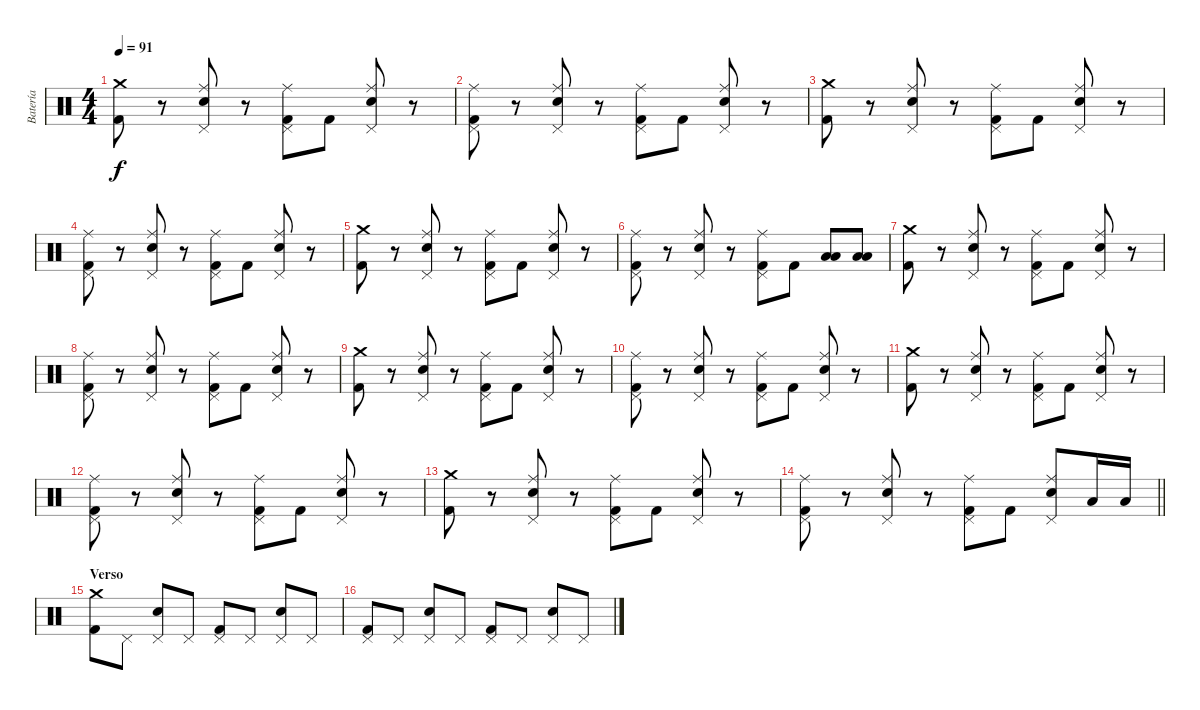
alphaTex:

\track ("Batería" "Batería") {instrument percussion}
\staff {score}
\articulation defaults
\ts (4 4)
\tempo 91
\clef neutral
\ks c
("Crash medium (hit)" "Kick (hit) 2").8{dy f} r.8 ("Pedal Hi-Hat (hit)" "Snare (hit) 2" "Ride (middle)").8 r.8 ("Pedal Hi-Hat (hit)" "Kick (hit) 2" "Ride (middle)").8 "Kick (hit) 2".8 ("Pedal Hi-Hat (hit)" "Snare (hit) 2" "Ride (middle)").8 r.8 |
("Pedal Hi-Hat (hit)" "Ride (middle)" "Kick (hit) 2").8 r.8 ("Pedal Hi-Hat (hit)" "Snare (hit) 2" "Ride (middle)").8 r.8 ("Pedal Hi-Hat (hit)" "Kick (hit) 2" "Ride (middle)").8 "Kick (hit) 2".8 ("Pedal Hi-Hat (hit)" "Snare (hit) 2" "Ride (middle)").8 r.8 |
("Crash medium (hit)" "Kick (hit) 2").8 r.8 ("Pedal Hi-Hat (hit)" "Snare (hit) 2" "Ride (middle)").8 r.8 ("Pedal Hi-Hat (hit)" "Kick (hit) 2" "Ride (middle)").8 "Kick (hit) 2".8 ("Pedal Hi-Hat (hit)" "Snare (hit) 2" "Ride (middle)").8 r.8 |
("Pedal Hi-Hat (hit)" "Ride (middle)" "Kick (hit) 2").8 r.8 ("Pedal Hi-Hat (hit)" "Snare (hit) 2" "Ride (middle)").8 r.8 ("Pedal Hi-Hat (hit)" "Kick (hit) 2" "Ride (middle)").8 "Kick (hit) 2".8 ("Pedal Hi-Hat (hit)" "Snare (hit) 2" "Ride (middle)").8 r.8 |
("Crash medium (hit)" "Kick (hit) 2").8 r.8 ("Pedal Hi-Hat (hit)" "Snare (hit) 2" "Ride (middle)").8 r.8 ("Pedal Hi-Hat (hit)" "Kick (hit) 2" "Ride (middle)").8 "Kick (hit) 2".8 ("Pedal Hi-Hat (hit)" "Snare (hit) 2" "Ride (middle)").8 r.8 |
("Pedal Hi-Hat (hit)" "Ride (middle)" "Kick (hit) 2").8 r.8 ("Pedal Hi-Hat (hit)" "Snare (hit) 2" "Ride (middle)").8 r.8 ("Pedal Hi-Hat (hit)" "Kick (hit) 2" "Ride (middle)").8 "Kick (hit) 2".8 ("Low Tom (hit)" "Low Tom (hit)").8 ("Low Tom (hit)" "Low Tom (hit)").8 |
("Crash medium (hit)" "Kick (hit) 2").8 r.8 ("Pedal Hi-Hat (hit)" "Snare (hit) 2" "Ride (middle)").8 r.8 ("Pedal Hi-Hat (hit)" "Kick (hit) 2" "Ride (middle)").8 "Kick (hit) 2".8 ("Pedal Hi-Hat (hit)" "Snare (hit) 2" "Ride (middle)").8 r.8 |
("Pedal Hi-Hat (hit)" "Ride (middle)" "Kick (hit) 2").8 r.8 ("Pedal Hi-Hat (hit)" "Snare (hit) 2" "Ride (middle)").8 r.8 ("Pedal Hi-Hat (hit)" "Kick (hit) 2" "Ride (middle)").8 "Kick (hit) 2".8 ("Pedal Hi-Hat (hit)" "Snare (hit) 2" "Ride (middle)").8 r.8 |
("Crash medium (hit)" "Kick (hit) 2").8 r.8 ("Pedal Hi-Hat (hit)" "Snare (hit) 2" "Ride (middle)").8 r.8 ("Pedal Hi-Hat (hit)" "Kick (hit) 2" "Ride (middle)").8 "Kick (hit) 2".8 ("Pedal Hi-Hat (hit)" "Snare (hit) 2" "Ride (middle)").8 r.8 |
("Pedal Hi-Hat (hit)" "Ride (middle)" "Kick (hit) 2").8 r.8 ("Pedal Hi-Hat (hit)" "Snare (hit) 2" "Ride (middle)").8 r.8 ("Pedal Hi-Hat (hit)" "Kick (hit) 2" "Ride (middle)").8 "Kick (hit) 2".8 ("Pedal Hi-Hat (hit)" "Snare (hit) 2" "Ride (middle)").8 r.8 |
("Crash medium (hit)" "Kick (hit) 2").8 r.8 ("Pedal Hi-Hat (hit)" "Snare (hit) 2" "Ride (middle)").8 r.8 ("Pedal Hi-Hat (hit)" "Kick (hit) 2" "Ride (middle)").8 "Kick (hit) 2".8 ("Pedal Hi-Hat (hit)" "Snare (hit) 2" "Ride (middle)").8 r.8 |
("Pedal Hi-Hat (hit)" "Ride (middle)" "Kick (hit) 2").8 r.8 ("Pedal Hi-Hat (hit)" "Snare (hit) 2" "Ride (middle)").8 r.8 ("Pedal Hi-Hat (hit)" "Kick (hit) 2" "Ride (middle)").8 "Kick (hit) 2".8 ("Pedal Hi-Hat (hit)" "Snare (hit) 2" "Ride (middle)").8 r.8 |
("Crash medium (hit)" "Kick (hit) 2").8 r.8 ("Pedal Hi-Hat (hit)" "Snare (hit) 2" "Ride (middle)").8 r.8 ("Pedal Hi-Hat (hit)" "Kick (hit) 2" "Ride (middle)").8 "Kick (hit) 2".8 ("Pedal Hi-Hat (hit)" "Snare (hit) 2" "Ride (middle)").8 r.8 |
\barLineRight lightlight
("Pedal Hi-Hat (hit)" "Ride (middle)" "Kick (hit) 2").8 r.8 ("Pedal Hi-Hat (hit)" "Snare (hit) 2" "Ride (middle)").8 r.8 ("Pedal Hi-Hat (hit)" "Kick (hit) 2" "Ride (middle)").8 "Kick (hit) 2".8 ("Pedal Hi-Hat (hit)" "Snare (hit) 2" "Ride (middle)").8 "Low Tom (hit)".16 "Low Tom (hit)".16 |
\section ("" "Verso")
("Crash medium (hit)" "Kick (hit) 2").8 "Pedal Hi-Hat (hit)".8 ("Pedal Hi-Hat (hit)" "Snare (hit) 2").8 "Pedal Hi-Hat (hit)".8 ("Pedal Hi-Hat (hit)" "Kick (hit) 2").8 "Pedal Hi-Hat (hit)".8 ("Pedal Hi-Hat (hit)" "Snare (hit) 2").8 "Pedal Hi-Hat (hit)".8 |
("Pedal Hi-Hat (hit)" "Kick (hit) 2").8 "Pedal Hi-Hat (hit)".8 ("Pedal Hi-Hat (hit)" "Snare (hit) 2").8 "Pedal Hi-Hat (hit)".8 ("Pedal Hi-Hat (hit)" "Kick (hit) 2").8 "Pedal Hi-Hat (hit)".8 ("Pedal Hi-Hat (hit)" "Snare (hit) 2").8 "Pedal Hi-Hat (hit)".8
